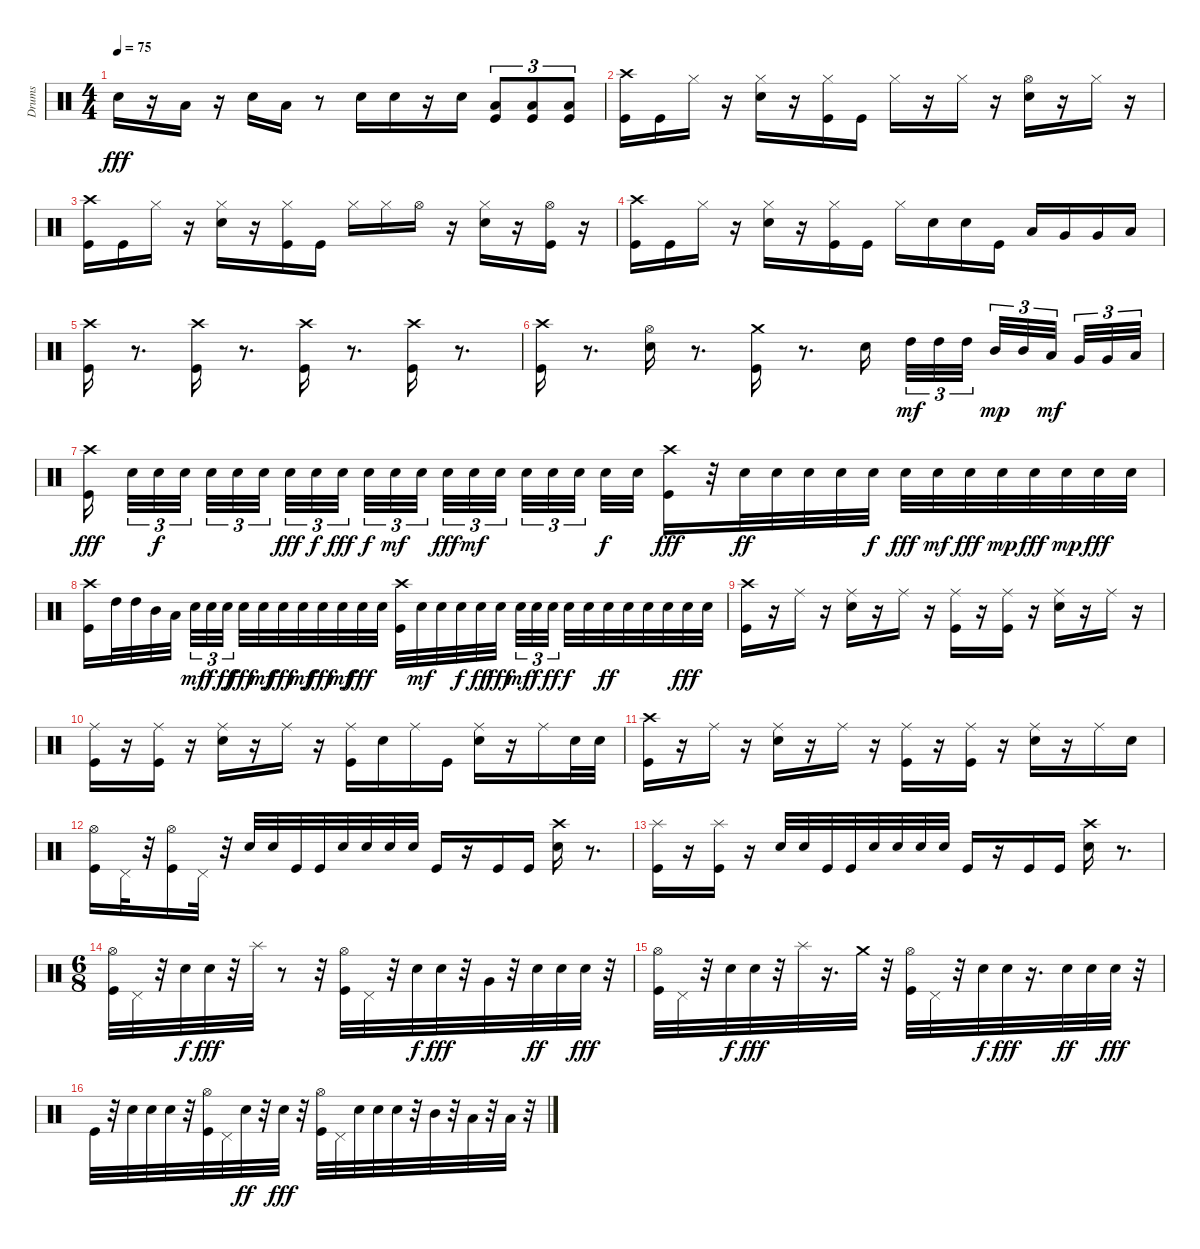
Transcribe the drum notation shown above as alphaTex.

\track ("Drums" "Drums") {instrument percussion}
\staff {score}
\articulation defaults
\ts (4 4)
\tempo 75
\clef neutral
\ks c "Snare (hit) 2".16{dy fff}
r.16 "Low Floor Tom (hit)".16 r.16 "Snare (hit) 2".16 "Low Floor Tom (hit)".16 r.8 "Snare (hit) 2".16 "Snare (hit) 2".16 r.16 "Snare (hit) 2".16 ("Low Floor Tom (hit)" "Kick (hit)").8{tu (3 2)} ("Low Floor Tom (hit)" "Kick (hit)").8{tu (3 2)} ("Low Floor Tom (hit)" "Kick (hit)").8{tu (3 2)} |
("Crash high (hit)" "Kick (hit)").16 "Kick (hit)".16 "Hi-Hat (closed)".16 r.16 ("Snare (hit) 2" "Hi-Hat (closed)").16 r.16 ("Kick (hit)" "Hi-Hat (closed)").16 "Kick (hit)".16 "Hi-Hat (closed)".16 r.16 "Hi-Hat (closed)".16 r.16 ("Snare (hit) 2" "Hi-Hat (open)").16 r.16 "Hi-Hat (closed)".16 r.16 |
("Crash high (hit)" "Kick (hit)").16 "Kick (hit)".16 "Hi-Hat (closed)".16 r.16 ("Hi-Hat (closed)" "Snare (hit) 2").16 r.16 ("Kick (hit)" "Hi-Hat (closed)").16 "Kick (hit)".16 "Hi-Hat (closed)".16 "Hi-Hat (closed)".16 "Hi-Hat (open)".16 r.16 ("Hi-Hat (closed)" "Snare (hit) 2").16 r.16 ("Kick (hit)" "Hi-Hat (open)").16 r.16 |
("Kick (hit)" "Crash high (hit)").16 "Kick (hit)".16 "Hi-Hat (closed)".16 r.16 ("Hi-Hat (closed)" "Snare (hit) 2").16 r.16 ("Hi-Hat (closed)" "Kick (hit)").16 "Kick (hit)".16 "Hi-Hat (closed)".16 "Snare (hit) 2".16 "Snare (hit) 2".16 "Kick (hit)".16 "Low Tom (hit)".16 "Very Low Tom (hit)".16 "Very Low Tom (hit)".16 "Low Floor Tom (hit)".16 |
("Crash high (hit)" "Kick (hit)").16 r.8{d} ("Crash high (hit)" "Kick (hit)").16 r.8{d} ("Crash high (hit)" "Kick (hit)").16 r.8{d} ("Crash high (hit)" "Kick (hit)").16 r.8{d} |
("Crash high (hit)" "Kick (hit)").16 r.8{d} ("Hi-Hat (open)" "Snare (hit) 2").16 r.8{d} ("Crash medium (hit)" "Kick (hit)").16 r.8{d} "Snare (hit) 2".16{beam splitsecondary} "High Tom (hit)".32{tu (3 2) dy mf} "High Tom (hit)".32{tu (3 2)} "High Tom (hit)".32{tu (3 2) beam splitsecondary} "Mid Tom (hit)".32{tu (3 2) dy mp} "Mid Tom (hit)".32{tu (3 2)} "Low Tom (hit)".32{tu (3 2) dy mf beam splitsecondary} "Very Low Tom (hit)".32{tu (3 2)} "Very Low Tom (hit)".32{tu (3 2)} "Low Floor Tom (hit)".32{tu (3 2)} |
("Crash high (hit)" "Kick (hit)").16{dy fff beam splitsecondary} "Snare (hit) 2".32{tu (3 2)} "Snare (hit) 2".32{tu (3 2) dy f} "Snare (hit) 2".32{tu (3 2) beam splitsecondary} "Snare (hit) 2".32{tu (3 2)} "Snare (hit) 2".32{tu (3 2)} "Snare (hit) 2".32{tu (3 2) beam splitsecondary} "Snare (hit) 2".32{tu (3 2) dy fff} "Snare (hit) 2".32{tu (3 2) dy f} "Snare (hit) 2".32{tu (3 2) dy fff} "Snare (hit) 2".32{tu (3 2) dy f} "Snare (hit) 2".32{tu (3 2) dy mf} "Snare (hit) 2".32{tu (3 2) beam splitsecondary} "Snare (hit) 2".32{tu (3 2) dy fff} "Snare (hit) 2".32{tu (3 2) dy mf} "Snare (hit) 2".32{tu (3 2) beam splitsecondary} "Snare (hit) 2".32{tu (3 2)} "Snare (hit) 2".32{tu (3 2)} "Snare (hit) 2".32{tu (3 2) beam splitsecondary} "Snare (hit) 2".32{dy f} "Snare (hit) 2".32 ("Crash high (hit)" "Kick (hit)").16{dy fff} r.32 "Snare (hit) 2".32{dy ff} "Snare (hit) 2".32 "Snare (hit) 2".32 "Snare (hit) 2".32 "Snare (hit) 2".32{dy f} "Snare (hit) 2".32{dy fff} "Snare (hit) 2".32{dy mf} "Snare (hit) 2".32{dy fff} "Snare (hit) 2".32{dy mp} "Snare (hit) 2".32{dy fff} "Snare (hit) 2".32{dy mp} "Snare (hit) 2".32{dy fff} "Snare (hit) 2".32 |
("Crash high (hit)" "Kick (hit)").16 "High Tom (hit)".32 "High Tom (hit)".32 "Mid Tom (hit)".32 "Low Tom (hit)".32{beam splitsecondary} "Snare (hit) 2".32{tu (3 2) dy mf} "Snare (hit) 2".32{tu (3 2) dy f} "Snare (hit) 2".32{tu (3 2) dy ff} "Snare (hit) 2".32{dy fff} "Snare (hit) 2".32{dy mf} "Snare (hit) 2".32{dy fff} "Snare (hit) 2".32{dy mf} "Snare (hit) 2".32{dy fff} "Snare (hit) 2".32{dy mf} "Snare (hit) 2".32{dy fff} "Snare (hit) 2".32 ("Crash high (hit)" "Kick (hit)").32 "Snare (hit) 2".32{dy mf} "Snare (hit) 2".32 "Snare (hit) 2".32{dy f} "Snare (hit) 2".32{dy ff} "Snare (hit) 2".32{dy fff beam splitsecondary} "Snare (hit) 2".32{tu (3 2) dy mf} "Snare (hit) 2".32{tu (3 2) dy f} "Snare (hit) 2".32{tu (3 2) dy ff} "Snare (hit) 2".32{dy f} "Snare (hit) 2".32 "Snare (hit) 2".32{dy ff} "Snare (hit) 2".32 "Snare (hit) 2".32 "Snare (hit) 2".32 "Snare (hit) 2".32{dy fff} "Snare (hit) 2".32 |
("Crash high (hit)" "Kick (hit)").16 r.16 "Ride (middle)".16 r.16 ("Snare (hit) 2" "Ride (middle)").16 r.16 "Ride (middle)".16 r.16 ("Kick (hit)" "Ride (middle)").16 r.16 ("Kick (hit)" "Ride (middle)").16 r.16 ("Snare (hit) 2" "Ride (middle)").16 r.16 "Ride (middle)".16 r.16 |
("Ride (middle)" "Kick (hit)").16 r.16 ("Kick (hit)" "Ride (middle)").16 r.16 ("Ride (middle)" "Snare (hit) 2").16 r.16 "Ride (middle)".16 r.16 ("Ride (middle)" "Kick (hit)").16 "Snare (hit) 2".16 "Ride (middle)".16 "Kick (hit)".16 ("Ride (middle)" "Snare (hit) 2").16 r.16 "Ride (middle)".16 "Snare (hit) 2".32 "Snare (hit) 2".32 |
("Kick (hit)" "Crash high (hit)").16 r.16 "Ride (middle)".16 r.16 ("Ride (middle)" "Snare (hit) 2").16 r.16 "Ride (middle)".16 r.16 ("Ride (middle)" "Kick (hit)").16 r.16 ("Ride (middle)" "Kick (hit)").16 r.16 ("Ride (middle)" "Snare (hit) 2").16 r.16 "Ride (middle)".16 "Snare (hit) 2".16 |
("Kick (hit)" "Hi-Hat (open)").16 "Pedal Hi-Hat (hit)".32 r.32 ("Hi-Hat (open)" "Kick (hit)").16 "Pedal Hi-Hat (hit)".32 r.32 "Snare (hit) 2".32 "Snare (hit) 2".32 "Kick (hit)".32 "Kick (hit)".32 "Snare (hit) 2".32 "Snare (hit) 2".32 "Snare (hit) 2".32 "Snare (hit) 2".32 "Kick (hit)".16 r.16 "Kick (hit)".16 "Kick (hit)".16 ("Snare (hit) 2" "Crash high (hit)").16 r.8{d} |
("Splash (hit)" "Kick (hit)").16 r.16 ("Splash (hit)" "Kick (hit)").16 r.16 "Snare (hit) 2".32 "Snare (hit) 2".32 "Kick (hit)".32 "Kick (hit)".32 "Snare (hit) 2".32 "Snare (hit) 2".32 "Snare (hit) 2".32 "Snare (hit) 2".32 "Kick (hit)".16 r.16 "Kick (hit)".16 "Kick (hit)".16 ("Crash high (hit)" "Snare (hit) 2").16 r.8{d} |
\ts (6 8)
("Hi-Hat (open)" "Kick (hit)").32 "Pedal Hi-Hat (hit)".32 r.32 "Snare (hit) 2".32{dy f} "Snare (hit) 2".32{dy fff} r.32 "Splash (hit)".32 r.8 r.32 ("Kick (hit)" "Hi-Hat (open)").32 "Pedal Hi-Hat (hit)".32 r.32 "Snare (hit) 2".32{dy f} "Snare (hit) 2".32{dy fff} r.32 "Very Low Tom (hit)".32 r.32 "Snare (hit) 2".32{dy ff} "Snare (hit) 2".32 "Snare (hit) 2".32{dy fff} r.32 |
("Kick (hit)" "Hi-Hat (open)").32 "Pedal Hi-Hat (hit)".32 r.32 "Snare (hit) 2".32{dy f} "Snare (hit) 2".32{dy fff} r.32 "Splash (hit)".32 r.16{d} "Crash medium (hit)".32 r.32 ("Hi-Hat (open)" "Kick (hit)").32 "Pedal Hi-Hat (hit)".32 r.32 "Snare (hit) 2".32{dy f} "Snare (hit) 2".32{dy fff} r.16{d} "Snare (hit) 2".32{dy ff} "Snare (hit) 2".32 "Snare (hit) 2".32{dy fff} r.32 |
"Kick (hit)".32 r.32 "Snare (hit) 2".32 "Snare (hit) 2".32 "Snare (hit) 2".32 r.32 ("Hi-Hat (open)" "Kick (hit)").32 "Pedal Hi-Hat (hit)".32 "Snare (hit) 2".32{dy ff} r.32 "Snare (hit) 2".32{dy fff} r.32 ("Hi-Hat (open)" "Kick (hit)").32 "Pedal Hi-Hat (hit)".32 "Snare (hit) 2".32 "Snare (hit) 2".32 "Snare (hit) 2".32 r.32 "Mid Tom (hit)".32 r.32 "Low Floor Tom (hit)".32 r.32 "Low Tom (hit)".32 r.32
